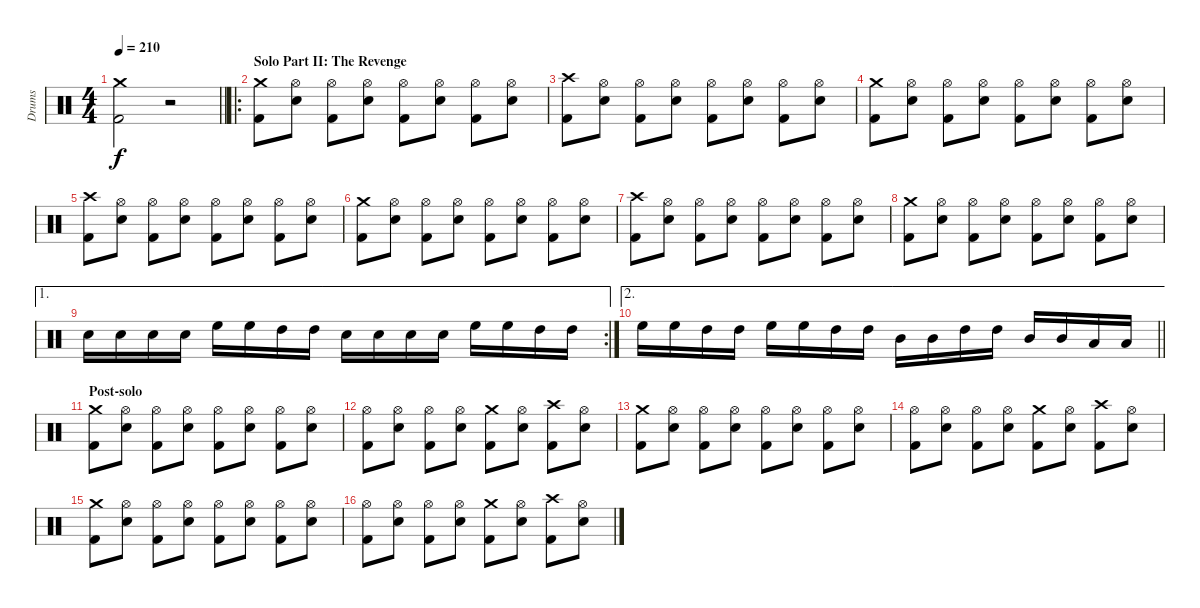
\track ("Drums" "Drums") {instrument percussion}
\staff {score}
\articulation defaults
\ts (4 4)
\tempo 210
\clef neutral
\barLineRight lightlight
\ks c
("Crash medium (hit)" "Kick (hit) 2").2{dy f} r.2 |
\ro
\section ("" "Solo Part II: The Revenge")
("Crash medium (hit)" "Kick (hit) 2").8 ("Hi-Hat (open)" "Electric Snare (hit)").8 ("Hi-Hat (open)" "Kick (hit) 2").8 ("Hi-Hat (open)" "Electric Snare (hit)").8 ("Hi-Hat (open)" "Kick (hit) 2").8 ("Hi-Hat (open)" "Electric Snare (hit)").8 ("Hi-Hat (open)" "Kick (hit) 2").8 ("Hi-Hat (open)" "Electric Snare (hit)").8 |
("Crash high (hit)" "Kick (hit) 2").8 ("Hi-Hat (open)" "Electric Snare (hit)").8 ("Hi-Hat (open)" "Kick (hit) 2").8 ("Hi-Hat (open)" "Electric Snare (hit)").8 ("Hi-Hat (open)" "Kick (hit) 2").8 ("Hi-Hat (open)" "Electric Snare (hit)").8 ("Hi-Hat (open)" "Kick (hit) 2").8 ("Hi-Hat (open)" "Electric Snare (hit)").8 |
("Crash medium (hit)" "Kick (hit) 2").8 ("Hi-Hat (open)" "Electric Snare (hit)").8 ("Hi-Hat (open)" "Kick (hit) 2").8 ("Hi-Hat (open)" "Electric Snare (hit)").8 ("Hi-Hat (open)" "Kick (hit) 2").8 ("Hi-Hat (open)" "Electric Snare (hit)").8 ("Hi-Hat (open)" "Kick (hit) 2").8 ("Hi-Hat (open)" "Electric Snare (hit)").8 |
("Crash high (hit)" "Kick (hit) 2").8 ("Hi-Hat (open)" "Electric Snare (hit)").8 ("Hi-Hat (open)" "Kick (hit) 2").8 ("Hi-Hat (open)" "Electric Snare (hit)").8 ("Hi-Hat (open)" "Kick (hit) 2").8 ("Hi-Hat (open)" "Electric Snare (hit)").8 ("Hi-Hat (open)" "Kick (hit) 2").8 ("Hi-Hat (open)" "Electric Snare (hit)").8 |
("Crash medium (hit)" "Kick (hit) 2").8 ("Hi-Hat (open)" "Electric Snare (hit)").8 ("Hi-Hat (open)" "Kick (hit) 2").8 ("Hi-Hat (open)" "Electric Snare (hit)").8 ("Hi-Hat (open)" "Kick (hit) 2").8 ("Hi-Hat (open)" "Electric Snare (hit)").8 ("Hi-Hat (open)" "Kick (hit) 2").8 ("Hi-Hat (open)" "Electric Snare (hit)").8 |
("Crash high (hit)" "Kick (hit) 2").8 ("Hi-Hat (open)" "Electric Snare (hit)").8 ("Hi-Hat (open)" "Kick (hit) 2").8 ("Hi-Hat (open)" "Electric Snare (hit)").8 ("Hi-Hat (open)" "Kick (hit) 2").8 ("Hi-Hat (open)" "Electric Snare (hit)").8 ("Hi-Hat (open)" "Kick (hit) 2").8 ("Hi-Hat (open)" "Electric Snare (hit)").8 |
("Crash medium (hit)" "Kick (hit) 2").8 ("Hi-Hat (open)" "Electric Snare (hit)").8 ("Hi-Hat (open)" "Kick (hit) 2").8 ("Hi-Hat (open)" "Electric Snare (hit)").8 ("Hi-Hat (open)" "Kick (hit) 2").8 ("Hi-Hat (open)" "Electric Snare (hit)").8 ("Hi-Hat (open)" "Kick (hit) 2").8 ("Hi-Hat (open)" "Electric Snare (hit)").8 |
\ae 1
\rc 2 "Electric Snare (hit)".16 "Electric Snare (hit)".16 "Electric Snare (hit)".16 "Electric Snare (hit)".16 "High Floor Tom (hit)".16 "High Floor Tom (hit)".16 "High Tom (hit)".16 "High Tom (hit)".16 "Electric Snare (hit)".16 "Electric Snare (hit)".16 "Electric Snare (hit)".16 "Electric Snare (hit)".16 "High Floor Tom (hit)".16 "High Floor Tom (hit)".16 "High Tom (hit)".16 "High Tom (hit)".16
|
\ae 2
\barLineRight lightlight "High Floor Tom (hit)".16 "High Floor Tom (hit)".16 "High Tom (hit)".16 "High Tom (hit)".16 "High Floor Tom (hit)".16 "High Floor Tom (hit)".16 "High Tom (hit)".16 "High Tom (hit)".16 "Mid Tom (hit)".16 "Mid Tom (hit)".16 "High Tom (hit)".16 "High Tom (hit)".16 "Mid Tom (hit)".16 "Mid Tom (hit)".16 "Low Tom (hit)".16 "Low Tom (hit)".16
|
\section ("" "Post-solo")
("Crash medium (hit)" "Kick (hit) 2").8 ("Hi-Hat (open)" "Electric Snare (hit)").8 ("Hi-Hat (open)" "Kick (hit) 2").8 ("Hi-Hat (open)" "Electric Snare (hit)").8 ("Hi-Hat (open)" "Kick (hit) 2").8 ("Hi-Hat (open)" "Electric Snare (hit)").8 ("Hi-Hat (open)" "Kick (hit) 2").8 ("Hi-Hat (open)" "Electric Snare (hit)").8 |
("Hi-Hat (open)" "Kick (hit) 2").8 ("Hi-Hat (open)" "Electric Snare (hit)").8 ("Hi-Hat (open)" "Kick (hit) 2").8 ("Hi-Hat (open)" "Electric Snare (hit)").8 ("Crash medium (hit)" "Kick (hit) 2").8 ("Hi-Hat (open)" "Electric Snare (hit)").8 ("Crash high (hit)" "Kick (hit) 2").8 ("Hi-Hat (open)" "Electric Snare (hit)").8 |
("Crash medium (hit)" "Kick (hit) 2").8 ("Hi-Hat (open)" "Electric Snare (hit)").8 ("Hi-Hat (open)" "Kick (hit) 2").8 ("Hi-Hat (open)" "Electric Snare (hit)").8 ("Hi-Hat (open)" "Kick (hit) 2").8 ("Hi-Hat (open)" "Electric Snare (hit)").8 ("Hi-Hat (open)" "Kick (hit) 2").8 ("Hi-Hat (open)" "Electric Snare (hit)").8 |
("Hi-Hat (open)" "Kick (hit) 2").8 ("Hi-Hat (open)" "Electric Snare (hit)").8 ("Hi-Hat (open)" "Kick (hit) 2").8 ("Hi-Hat (open)" "Electric Snare (hit)").8 ("Crash medium (hit)" "Kick (hit) 2").8 ("Hi-Hat (open)" "Electric Snare (hit)").8 ("Crash high (hit)" "Kick (hit) 2").8 ("Hi-Hat (open)" "Electric Snare (hit)").8 |
("Crash medium (hit)" "Kick (hit) 2").8 ("Hi-Hat (open)" "Electric Snare (hit)").8 ("Hi-Hat (open)" "Kick (hit) 2").8 ("Hi-Hat (open)" "Electric Snare (hit)").8 ("Hi-Hat (open)" "Kick (hit) 2").8 ("Hi-Hat (open)" "Electric Snare (hit)").8 ("Hi-Hat (open)" "Kick (hit) 2").8 ("Hi-Hat (open)" "Electric Snare (hit)").8 |
("Hi-Hat (open)" "Kick (hit) 2").8 ("Hi-Hat (open)" "Electric Snare (hit)").8 ("Hi-Hat (open)" "Kick (hit) 2").8 ("Hi-Hat (open)" "Electric Snare (hit)").8 ("Crash medium (hit)" "Kick (hit) 2").8 ("Hi-Hat (open)" "Electric Snare (hit)").8 ("Crash high (hit)" "Kick (hit) 2").8 ("Hi-Hat (open)" "Electric Snare (hit)").8
